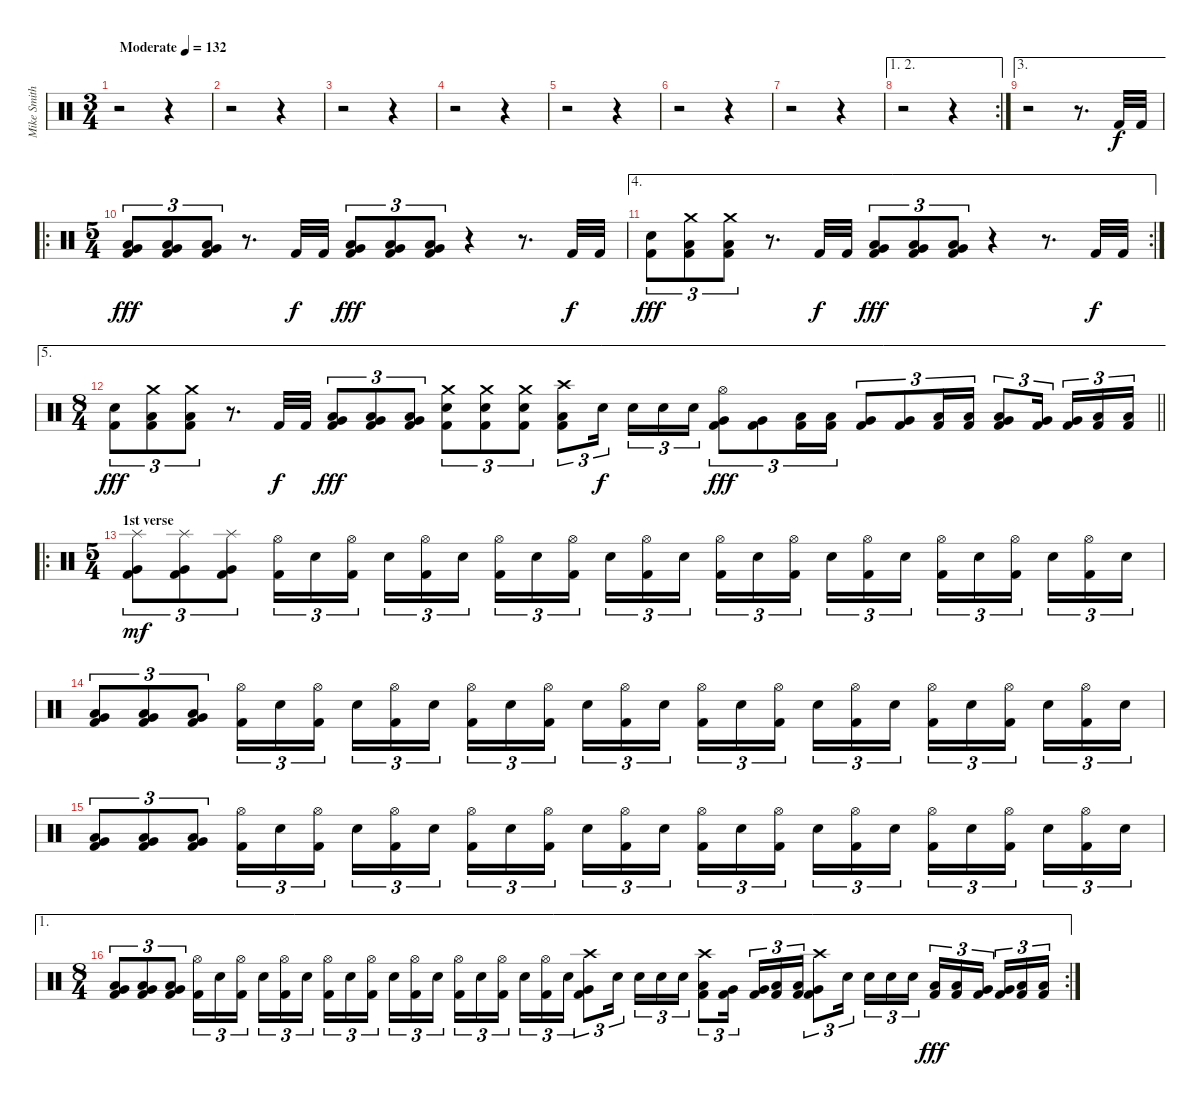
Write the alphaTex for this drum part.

\track ("Mike Smith" "Mike Smith") {instrument percussion}
\staff {score}
\articulation defaults
\ts (3 4)
\tempo (132 "Moderate")
\clef neutral
\ks c
r.2{dy f} r.4 |
r.2 r.4 |
r.2 r.4 |
r.2 r.4 |
r.2 r.4 |
r.2 r.4 |
r.2 r.4 |
\ae (1 2)
\rc 2
r.2 r.4 |
\ae 3
r.2 r.8{d} "Kick (hit) 2".32 "Kick (hit) 2".32 |
\ro
\ts (5 4)
("Kick (hit) 2" "Very Low Tom (hit)" "Low Floor Tom (hit)").8{tu (3 2) dy fff} ("Kick (hit) 2" "Very Low Tom (hit)" "Low Floor Tom (hit)").8{tu (3 2)} ("Kick (hit) 2" "Very Low Tom (hit)" "Low Floor Tom (hit)").8{tu (3 2)} r.8{d} "Kick (hit) 2".32{dy f} "Kick (hit) 2".32 ("Kick (hit) 2" "Very Low Tom (hit)" "Low Floor Tom (hit)").8{tu (3 2) dy fff} ("Kick (hit) 2" "Very Low Tom (hit)" "Low Floor Tom (hit)").8{tu (3 2)} ("Kick (hit) 2" "Very Low Tom (hit)" "Low Floor Tom (hit)").8{tu (3 2)} r.4 r.8{d} "Kick (hit) 2".32{dy f} "Kick (hit) 2".32 |
\ae 4
\rc 2
("Kick (hit) 2" "Electric Snare (hit)").8{tu (3 2) dy fff} ("Kick (hit) 2" "Crash medium (hit)" "Low Floor Tom (hit)").8{tu (3 2)} ("Kick (hit) 2" "Crash medium (hit)" "Low Floor Tom (hit)").8{tu (3 2)} r.8{d} "Kick (hit) 2".32{dy f} "Kick (hit) 2".32 ("Kick (hit) 2" "Very Low Tom (hit)" "Low Floor Tom (hit)").8{tu (3 2) dy fff} ("Kick (hit) 2" "Very Low Tom (hit)" "Low Floor Tom (hit)").8{tu (3 2)} ("Kick (hit) 2" "Very Low Tom (hit)" "Low Floor Tom (hit)").8{tu (3 2)} r.4 r.8{d} "Kick (hit) 2".32{dy f} "Kick (hit) 2".32 |
\ae 5
\ts (8 4)
\barLineRight lightlight
("Kick (hit) 2" "Electric Snare (hit)").8{tu (3 2) dy fff} ("Kick (hit) 2" "Crash medium (hit)" "Low Floor Tom (hit)").8{tu (3 2)} ("Kick (hit) 2" "Crash medium (hit)" "Low Floor Tom (hit)").8{tu (3 2)} r.8{d} "Kick (hit) 2".32{dy f} "Kick (hit) 2".32 ("Kick (hit) 2" "Very Low Tom (hit)" "Low Floor Tom (hit)").8{tu (3 2) dy fff} ("Kick (hit) 2" "Very Low Tom (hit)" "Low Floor Tom (hit)").8{tu (3 2)} ("Kick (hit) 2" "Very Low Tom (hit)" "Low Floor Tom (hit)").8{tu (3 2)} ("Kick (hit) 2" "Crash medium (hit)" "Electric Snare (hit)").8{tu (3 2)} ("Kick (hit) 2" "Crash medium (hit)" "Electric Snare (hit)").8{tu (3 2)} ("Kick (hit) 2" "Crash medium (hit)" "Electric Snare (hit)").8{tu (3 2)} ("Kick (hit) 2" "Crash high (hit)" "Low Floor Tom (hit)").8{tu (3 2)} "Electric Snare (hit)".16{tu (3 2) dy f beam splitsecondary} "Electric Snare (hit)".16{tu (3 2)} "Electric Snare (hit)".16{tu (3 2)} "Electric Snare (hit)".16{tu (3 2)} ("Kick (hit) 2" "Hi-Hat (open)" "Very Low Tom (hit)").8{tu (3 2) dy fff} ("Kick (hit) 2" "Very Low Tom (hit)").8{tu (3 2)} ("Low Floor Tom (hit)" "Kick (hit) 2").16{tu (3 2)} ("Low Floor Tom (hit)" "Kick (hit) 2").16{tu (3 2)} ("Kick (hit) 2" "Very Low Tom (hit)").8{tu (3 2)} ("Kick (hit) 2" "Very Low Tom (hit)").8{tu (3 2)} ("Low Floor Tom (hit)" "Kick (hit) 2").16{tu (3 2)} ("Low Floor Tom (hit)" "Kick (hit) 2").16{tu (3 2)} ("Kick (hit) 2" "Low Floor Tom (hit)" "Very Low Tom (hit)").8{tu (3 2)} ("Kick (hit) 2" "Very Low Tom (hit)").16{tu (3 2) beam splitsecondary} ("Kick (hit) 2" "Very Low Tom (hit)").16{tu (3 2)} ("Kick (hit) 2" "Low Floor Tom (hit)").16{tu (3 2)} ("Kick (hit) 2" "Low Floor Tom (hit)").16{tu (3 2)} |
\ro
\ts (5 4)
\section ("" "1st verse")
("Splash (hit)" "Very Low Tom (hit)" "Kick (hit) 2").8{tu (3 2) dy mf} ("Splash (hit)" "Very Low Tom (hit)" "Kick (hit) 2").8{tu (3 2)} ("Splash (hit)" "Very Low Tom (hit)" "Kick (hit) 2").8{tu (3 2)} ("Hi-Hat (open)" "Kick (hit) 2").16{tu (3 2)} "Electric Snare (hit)".16{tu (3 2)} ("Hi-Hat (open)" "Kick (hit) 2").16{tu (3 2) beam splitsecondary} "Electric Snare (hit)".16{tu (3 2)} ("Hi-Hat (open)" "Kick (hit) 2").16{tu (3 2)} "Electric Snare (hit)".16{tu (3 2)} ("Hi-Hat (open)" "Kick (hit) 2").16{tu (3 2)} "Electric Snare (hit)".16{tu (3 2)} ("Hi-Hat (open)" "Kick (hit) 2").16{tu (3 2) beam splitsecondary} "Electric Snare (hit)".16{tu (3 2)} ("Hi-Hat (open)" "Kick (hit) 2").16{tu (3 2)} "Electric Snare (hit)".16{tu (3 2)} ("Hi-Hat (open)" "Kick (hit) 2").16{tu (3 2)} "Electric Snare (hit)".16{tu (3 2)} ("Hi-Hat (open)" "Kick (hit) 2").16{tu (3 2) beam splitsecondary} "Electric Snare (hit)".16{tu (3 2)} ("Hi-Hat (open)" "Kick (hit) 2").16{tu (3 2)} "Electric Snare (hit)".16{tu (3 2)} ("Hi-Hat (open)" "Kick (hit) 2").16{tu (3 2)} "Electric Snare (hit)".16{tu (3 2)} ("Hi-Hat (open)" "Kick (hit) 2").16{tu (3 2) beam splitsecondary} "Electric Snare (hit)".16{tu (3 2)} ("Hi-Hat (open)" "Kick (hit) 2").16{tu (3 2)} "Electric Snare (hit)".16{tu (3 2)} |
("Kick (hit) 2" "Very Low Tom (hit)" "Low Floor Tom (hit)").8{tu (3 2)} ("Kick (hit) 2" "Very Low Tom (hit)" "Low Floor Tom (hit)").8{tu (3 2)} ("Kick (hit) 2" "Very Low Tom (hit)" "Low Floor Tom (hit)").8{tu (3 2)} ("Hi-Hat (open)" "Kick (hit) 2").16{tu (3 2)} "Electric Snare (hit)".16{tu (3 2)} ("Hi-Hat (open)" "Kick (hit) 2").16{tu (3 2) beam splitsecondary} "Electric Snare (hit)".16{tu (3 2)} ("Hi-Hat (open)" "Kick (hit) 2").16{tu (3 2)} "Electric Snare (hit)".16{tu (3 2)} ("Hi-Hat (open)" "Kick (hit) 2").16{tu (3 2)} "Electric Snare (hit)".16{tu (3 2)} ("Hi-Hat (open)" "Kick (hit) 2").16{tu (3 2) beam splitsecondary} "Electric Snare (hit)".16{tu (3 2)} ("Hi-Hat (open)" "Kick (hit) 2").16{tu (3 2)} "Electric Snare (hit)".16{tu (3 2)} ("Hi-Hat (open)" "Kick (hit) 2").16{tu (3 2)} "Electric Snare (hit)".16{tu (3 2)} ("Hi-Hat (open)" "Kick (hit) 2").16{tu (3 2) beam splitsecondary} "Electric Snare (hit)".16{tu (3 2)} ("Hi-Hat (open)" "Kick (hit) 2").16{tu (3 2)} "Electric Snare (hit)".16{tu (3 2)} ("Hi-Hat (open)" "Kick (hit) 2").16{tu (3 2)} "Electric Snare (hit)".16{tu (3 2)} ("Hi-Hat (open)" "Kick (hit) 2").16{tu (3 2) beam splitsecondary} "Electric Snare (hit)".16{tu (3 2)} ("Hi-Hat (open)" "Kick (hit) 2").16{tu (3 2)} "Electric Snare (hit)".16{tu (3 2)} |
("Kick (hit) 2" "Very Low Tom (hit)" "Low Floor Tom (hit)").8{tu (3 2)} ("Kick (hit) 2" "Very Low Tom (hit)" "Low Floor Tom (hit)").8{tu (3 2)} ("Kick (hit) 2" "Very Low Tom (hit)" "Low Floor Tom (hit)").8{tu (3 2)} ("Hi-Hat (open)" "Kick (hit) 2").16{tu (3 2)} "Electric Snare (hit)".16{tu (3 2)} ("Hi-Hat (open)" "Kick (hit) 2").16{tu (3 2) beam splitsecondary} "Electric Snare (hit)".16{tu (3 2)} ("Hi-Hat (open)" "Kick (hit) 2").16{tu (3 2)} "Electric Snare (hit)".16{tu (3 2)} ("Hi-Hat (open)" "Kick (hit) 2").16{tu (3 2)} "Electric Snare (hit)".16{tu (3 2)} ("Hi-Hat (open)" "Kick (hit) 2").16{tu (3 2) beam splitsecondary} "Electric Snare (hit)".16{tu (3 2)} ("Hi-Hat (open)" "Kick (hit) 2").16{tu (3 2)} "Electric Snare (hit)".16{tu (3 2)} ("Hi-Hat (open)" "Kick (hit) 2").16{tu (3 2)} "Electric Snare (hit)".16{tu (3 2)} ("Hi-Hat (open)" "Kick (hit) 2").16{tu (3 2) beam splitsecondary} "Electric Snare (hit)".16{tu (3 2)} ("Hi-Hat (open)" "Kick (hit) 2").16{tu (3 2)} "Electric Snare (hit)".16{tu (3 2)} ("Hi-Hat (open)" "Kick (hit) 2").16{tu (3 2)} "Electric Snare (hit)".16{tu (3 2)} ("Hi-Hat (open)" "Kick (hit) 2").16{tu (3 2) beam splitsecondary} "Electric Snare (hit)".16{tu (3 2)} ("Hi-Hat (open)" "Kick (hit) 2").16{tu (3 2)} "Electric Snare (hit)".16{tu (3 2)} |
\ae 1
\rc 2
\ts (8 4)
("Kick (hit) 2" "Very Low Tom (hit)" "Low Floor Tom (hit)").8{tu (3 2)} ("Kick (hit) 2" "Very Low Tom (hit)" "Low Floor Tom (hit)").8{tu (3 2)} ("Kick (hit) 2" "Very Low Tom (hit)" "Low Floor Tom (hit)").8{tu (3 2)} ("Hi-Hat (open)" "Kick (hit) 2").16{tu (3 2)} "Electric Snare (hit)".16{tu (3 2)} ("Hi-Hat (open)" "Kick (hit) 2").16{tu (3 2) beam splitsecondary} "Electric Snare (hit)".16{tu (3 2)} ("Hi-Hat (open)" "Kick (hit) 2").16{tu (3 2)} "Electric Snare (hit)".16{tu (3 2)} ("Hi-Hat (open)" "Kick (hit) 2").16{tu (3 2)} "Electric Snare (hit)".16{tu (3 2)} ("Hi-Hat (open)" "Kick (hit) 2").16{tu (3 2) beam splitsecondary} "Electric Snare (hit)".16{tu (3 2)} ("Hi-Hat (open)" "Kick (hit) 2").16{tu (3 2)} "Electric Snare (hit)".16{tu (3 2)} ("Hi-Hat (open)" "Kick (hit) 2").16{tu (3 2)} "Electric Snare (hit)".16{tu (3 2)} ("Hi-Hat (open)" "Kick (hit) 2").16{tu (3 2) beam splitsecondary} "Electric Snare (hit)".16{tu (3 2)} ("Hi-Hat (open)" "Kick (hit) 2").16{tu (3 2)} "Electric Snare (hit)".16{tu (3 2)} ("Crash high (hit)" "Very Low Tom (hit)" "Kick (hit) 2").8{tu (3 2)} "Electric Snare (hit)".16{tu (3 2) beam splitsecondary} "Electric Snare (hit)".16{tu (3 2)} "Electric Snare (hit)".16{tu (3 2)} "Electric Snare (hit)".16{tu (3 2)} ("Crash high (hit)" "Kick (hit) 2" "Low Floor Tom (hit)").8{tu (3 2)} ("Kick (hit) 2" "Very Low Tom (hit)").16{tu (3 2) beam splitsecondary} ("Kick (hit) 2" "Very Low Tom (hit)").16{tu (3 2)} ("Kick (hit) 2" "Low Floor Tom (hit)").16{tu (3 2)} ("Kick (hit) 2" "Low Floor Tom (hit)").16{tu (3 2)} ("Crash high (hit)" "Very Low Tom (hit)" "Kick (hit) 2").8{tu (3 2)} "Electric Snare (hit)".16{tu (3 2) beam splitsecondary} "Electric Snare (hit)".16{tu (3 2)} "Electric Snare (hit)".16{tu (3 2)} "Electric Snare (hit)".16{tu (3 2)} ("Low Tom (hit)" "Kick (hit) 2").16{tu (3 2) dy fff} ("Low Tom (hit)" "Kick (hit) 2").16{tu (3 2)} ("Very Low Tom (hit)" "Kick (hit) 2").16{tu (3 2) beam splitsecondary} ("Very Low Tom (hit)" "Kick (hit) 2").16{tu (3 2)} ("Low Floor Tom (hit)" "Kick (hit) 2").16{tu (3 2)} ("Low Floor Tom (hit)" "Kick (hit) 2").16{tu (3 2)}
